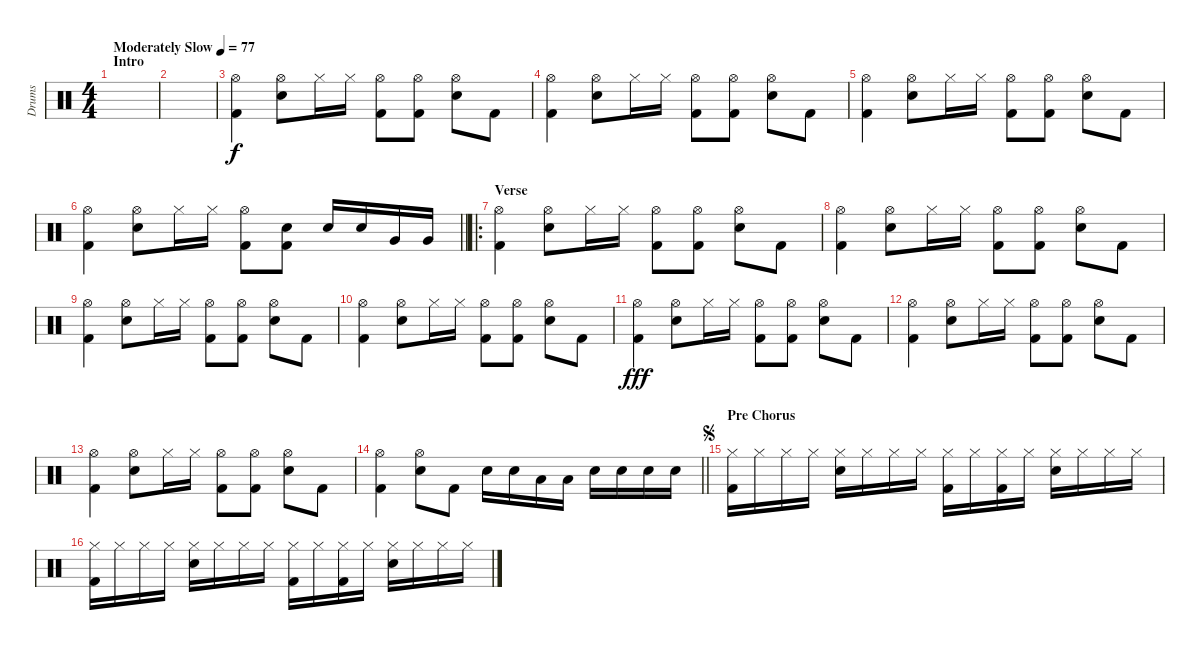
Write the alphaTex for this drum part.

\track ("Drums" "Drums") {instrument percussion}
\staff {score}
\articulation defaults
\ts (4 4)
\section ("" "Intro")
\tempo (77 "Moderately Slow")
\clef neutral
\ks c
|
|
("Hi-Hat (open)" "Kick (hit) 2").4 ("Hi-Hat (open)" "Electric Snare (hit)").8 "Hi-Hat (closed)".16 "Hi-Hat (closed)".16 ("Hi-Hat (open)" "Kick (hit) 2").8 ("Hi-Hat (open)" "Kick (hit) 2").8 ("Hi-Hat (open)" "Electric Snare (hit)").8 "Kick (hit) 2".8 |
("Hi-Hat (open)" "Kick (hit) 2").4 ("Hi-Hat (open)" "Electric Snare (hit)").8 "Hi-Hat (closed)".16 "Hi-Hat (closed)".16 ("Hi-Hat (open)" "Kick (hit) 2").8 ("Hi-Hat (open)" "Kick (hit) 2").8 ("Hi-Hat (open)" "Electric Snare (hit)").8 "Kick (hit) 2".8 |
("Hi-Hat (open)" "Kick (hit) 2").4 ("Hi-Hat (open)" "Electric Snare (hit)").8 "Hi-Hat (closed)".16 "Hi-Hat (closed)".16 ("Hi-Hat (open)" "Kick (hit) 2").8 ("Hi-Hat (open)" "Kick (hit) 2").8 ("Hi-Hat (open)" "Electric Snare (hit)").8 "Kick (hit) 2".8 |
\barLineRight lightlight
("Hi-Hat (open)" "Kick (hit) 2").4 ("Hi-Hat (open)" "Electric Snare (hit)").8 "Hi-Hat (closed)".16 "Hi-Hat (closed)".16 ("Hi-Hat (open)" "Kick (hit) 2").8 ("Electric Snare (hit)" "Kick (hit) 2").8 "Electric Snare (hit)".16 "Electric Snare (hit)".16 "Very Low Tom (hit)".16 "Very Low Tom (hit)".16 |
\ro
\section ("" "Verse")
("Hi-Hat (open)" "Kick (hit) 2").4{dy f} ("Hi-Hat (open)" "Electric Snare (hit)").8 "Hi-Hat (closed)".16 "Hi-Hat (closed)".16 ("Hi-Hat (open)" "Kick (hit) 2").8 ("Hi-Hat (open)" "Kick (hit) 2").8 ("Hi-Hat (open)" "Electric Snare (hit)").8 "Kick (hit) 2".8 |
("Hi-Hat (open)" "Kick (hit) 2").4 ("Hi-Hat (open)" "Electric Snare (hit)").8 "Hi-Hat (closed)".16 "Hi-Hat (closed)".16 ("Hi-Hat (open)" "Kick (hit) 2").8 ("Hi-Hat (open)" "Kick (hit) 2").8 ("Hi-Hat (open)" "Electric Snare (hit)").8 "Kick (hit) 2".8 |
("Hi-Hat (open)" "Kick (hit) 2").4 ("Hi-Hat (open)" "Electric Snare (hit)").8 "Hi-Hat (closed)".16 "Hi-Hat (closed)".16 ("Hi-Hat (open)" "Kick (hit) 2").8 ("Hi-Hat (open)" "Kick (hit) 2").8 ("Hi-Hat (open)" "Electric Snare (hit)").8 "Kick (hit) 2".8 |
("Hi-Hat (open)" "Kick (hit) 2").4 ("Hi-Hat (open)" "Electric Snare (hit)").8 "Hi-Hat (closed)".16 "Hi-Hat (closed)".16 ("Hi-Hat (open)" "Kick (hit) 2").8 ("Hi-Hat (open)" "Kick (hit) 2").8 ("Hi-Hat (open)" "Electric Snare (hit)").8 "Kick (hit) 2".8 |
("Hi-Hat (open)" "Kick (hit) 2").4{dy fff} ("Hi-Hat (open)" "Electric Snare (hit)").8 "Hi-Hat (closed)".16 "Hi-Hat (closed)".16 ("Hi-Hat (open)" "Kick (hit) 2").8 ("Hi-Hat (open)" "Kick (hit) 2").8 ("Hi-Hat (open)" "Electric Snare (hit)").8 "Kick (hit) 2".8 |
("Hi-Hat (open)" "Kick (hit) 2").4 ("Hi-Hat (open)" "Electric Snare (hit)").8 "Hi-Hat (closed)".16 "Hi-Hat (closed)".16 ("Hi-Hat (open)" "Kick (hit) 2").8 ("Hi-Hat (open)" "Kick (hit) 2").8 ("Hi-Hat (open)" "Electric Snare (hit)").8 "Kick (hit) 2".8 |
("Hi-Hat (open)" "Kick (hit) 2").4 ("Hi-Hat (open)" "Electric Snare (hit)").8 "Hi-Hat (closed)".16 "Hi-Hat (closed)".16 ("Hi-Hat (open)" "Kick (hit) 2").8 ("Hi-Hat (open)" "Kick (hit) 2").8 ("Hi-Hat (open)" "Electric Snare (hit)").8 "Kick (hit) 2".8 |
\barLineRight lightlight
("Hi-Hat (open)" "Kick (hit) 2").4 ("Hi-Hat (open)" "Electric Snare (hit)").8 "Kick (hit) 2".8 "Electric Snare (hit)".16 "Electric Snare (hit)".16 "Low Tom (hit)".16 "Low Tom (hit)".16 "Electric Snare (hit)".16 "Electric Snare (hit)".16 "Electric Snare (hit)".16 "Electric Snare (hit)".16 |
\section ("" "Pre Chorus")
\jump segno
("Hi-Hat (closed)" "Kick (hit) 2").16 "Hi-Hat (closed)".16 "Hi-Hat (closed)".16 "Hi-Hat (closed)".16 ("Hi-Hat (closed)" "Electric Snare (hit)").16 "Hi-Hat (closed)".16 "Hi-Hat (closed)".16 "Hi-Hat (closed)".16 ("Hi-Hat (closed)" "Kick (hit) 2").16 "Hi-Hat (closed)".16 ("Hi-Hat (closed)" "Kick (hit) 2").16 "Hi-Hat (closed)".16 ("Hi-Hat (closed)" "Electric Snare (hit)").16 "Hi-Hat (closed)".16 "Hi-Hat (closed)".16 "Hi-Hat (closed)".16 |
("Hi-Hat (closed)" "Kick (hit) 2").16 "Hi-Hat (closed)".16 "Hi-Hat (closed)".16 "Hi-Hat (closed)".16 ("Hi-Hat (closed)" "Electric Snare (hit)").16 "Hi-Hat (closed)".16 "Hi-Hat (closed)".16 "Hi-Hat (closed)".16 ("Hi-Hat (closed)" "Kick (hit) 2").16 "Hi-Hat (closed)".16 ("Hi-Hat (closed)" "Kick (hit) 2").16 "Hi-Hat (closed)".16 ("Hi-Hat (closed)" "Electric Snare (hit)").16 "Hi-Hat (closed)".16 "Hi-Hat (closed)".16 "Hi-Hat (closed)".16
